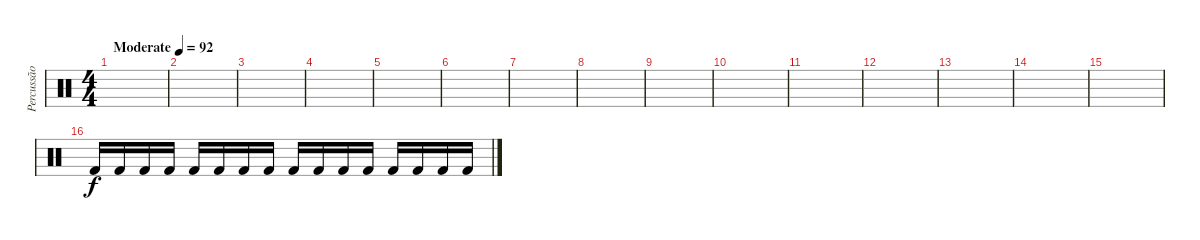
\track ("Percussão" "Percussão") {instrument percussion}
\staff {score}
\articulation defaults
\ts (4 4)
\tempo (92 "Moderate")
\clef neutral
\ks c
|
|
|
|
|
|
|
|
|
|
|
|
|
|
|
"Kick (hit) 2".16 "Kick (hit) 2".16 "Kick (hit) 2".16 "Kick (hit) 2".16 "Kick (hit) 2".16 "Kick (hit) 2".16 "Kick (hit) 2".16 "Kick (hit) 2".16 "Kick (hit) 2".16 "Kick (hit) 2".16 "Kick (hit) 2".16 "Kick (hit) 2".16 "Kick (hit) 2".16 "Kick (hit) 2".16 "Kick (hit) 2".16 "Kick (hit) 2".16
